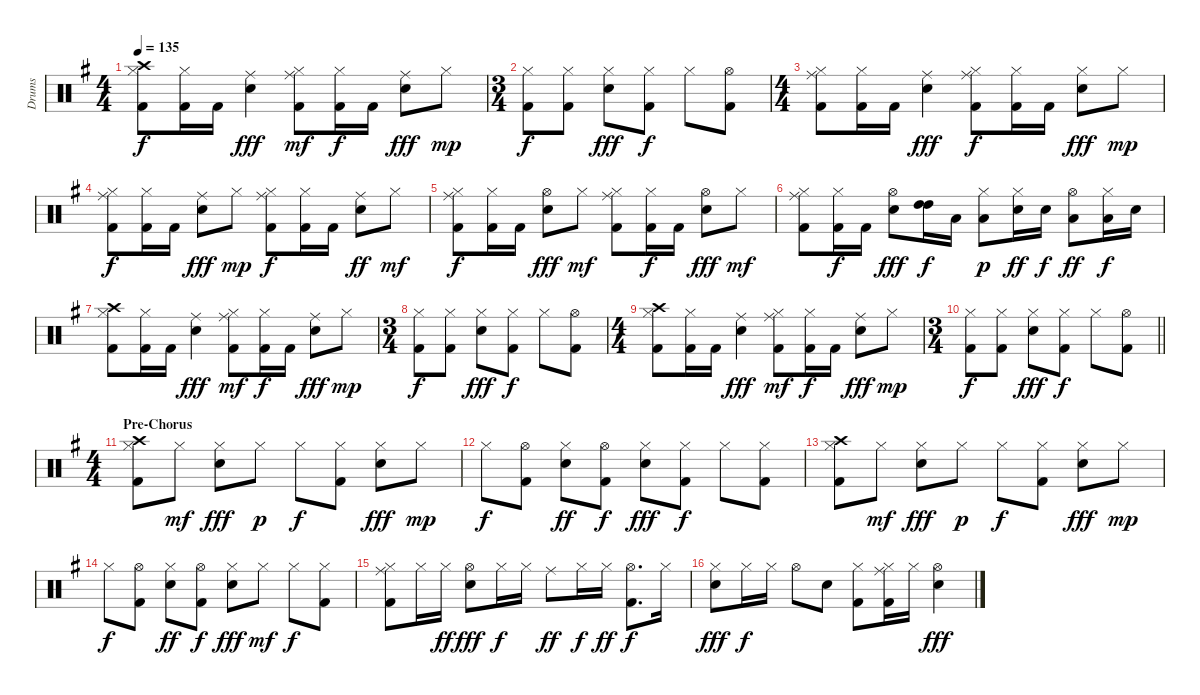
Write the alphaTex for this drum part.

\track ("Drums" "Drums") {instrument percussion}
\staff {score}
\articulation defaults
\ts (4 4)
\tempo 135
\clef neutral
\ks g
("Hi-Hat (closed)" "Crash high (hit)" "Kick (hit) 2").8{dy f} ("Hi-Hat (closed)" "Kick (hit) 2").16 "Kick (hit) 2".16 ("Ride (middle)" "Electric Snare (hit)").4{dy fff} ("Hi-Hat (closed)" "Ride (middle)" "Kick (hit) 2").8{dy mf} ("Hi-Hat (closed)" "Kick (hit) 2").16{dy f} "Kick (hit) 2".16 ("Ride (middle)" "Electric Snare (hit)").8{dy fff} "Hi-Hat (closed)".8{dy mp} |
\ts (3 4)
("Hi-Hat (closed)" "Kick (hit) 2").8{dy f} ("Hi-Hat (closed)" "Kick (hit) 2").8 ("Hi-Hat (closed)" "Electric Snare (hit)").8{dy fff} ("Hi-Hat (closed)" "Kick (hit) 2").8{dy f} "Hi-Hat (closed)".8 ("Hi-Hat (open)" "Kick (hit) 2").8 |
\ts (4 4)
("Hi-Hat (closed)" "Ride (middle)" "Kick (hit) 2").8 ("Hi-Hat (closed)" "Kick (hit) 2").16 "Kick (hit) 2".16 ("Ride (middle)" "Electric Snare (hit)").4{dy fff} ("Hi-Hat (closed)" "Ride (middle)" "Kick (hit) 2").8{dy f} ("Hi-Hat (closed)" "Kick (hit) 2").16 "Kick (hit) 2".16 ("Hi-Hat (closed)" "Electric Snare (hit)").8{dy fff} "Hi-Hat (closed)".8{dy mp} |
("Hi-Hat (closed)" "Ride (middle)" "Kick (hit) 2").8{dy f} ("Hi-Hat (closed)" "Kick (hit) 2").16 "Kick (hit) 2".16 ("Ride (middle)" "Electric Snare (hit)").8{dy fff} "Hi-Hat (closed)".8{dy mp} ("Hi-Hat (closed)" "Ride (middle)" "Kick (hit) 2").8{dy f} ("Hi-Hat (closed)" "Kick (hit) 2").16 "Kick (hit) 2".16 ("Ride (middle)" "Electric Snare (hit)").8{dy ff} "Hi-Hat (closed)".8{dy mf} |
("Hi-Hat (closed)" "Ride (middle)" "Kick (hit) 2").8{dy f} ("Hi-Hat (closed)" "Kick (hit) 2").16 "Kick (hit) 2".16 ("Hi-Hat (open)" "Electric Snare (hit)").8{dy fff} "Hi-Hat (closed)".8{dy mf} ("Hi-Hat (closed)" "Ride (middle)" "Kick (hit) 2").8 ("Hi-Hat (closed)" "Kick (hit) 2").16{dy f} "Kick (hit) 2".16 ("Hi-Hat (open)" "Electric Snare (hit)").8{dy fff} "Hi-Hat (closed)".8{dy mf} |
("Hi-Hat (closed)" "Ride (middle)" "Kick (hit) 2").8 ("Hi-Hat (closed)" "Kick (hit) 2").16{dy f} "Kick (hit) 2".16 ("Hi-Hat (open)" "Electric Snare (hit)").8{dy fff} ("High Tom (hit)" "High Tom (hit)").16{dy f} "Low Tom (hit)".16 ("Hi-Hat (closed)" "Low Floor Tom (hit)").8{dy p} ("Hi-Hat (closed)" "Electric Snare (hit)").16{dy ff} "Electric Snare (hit)".16{dy f} ("Hi-Hat (open)" "Low Tom (hit)").8{dy ff} ("Hi-Hat (closed)" "Low Tom (hit)").16{dy f} "Electric Snare (hit)".16 |
("Hi-Hat (closed)" "Crash high (hit)" "Kick (hit) 2").8 ("Hi-Hat (closed)" "Kick (hit) 2").16 "Kick (hit) 2".16 ("Ride (middle)" "Electric Snare (hit)").4{dy fff} ("Hi-Hat (closed)" "Ride (middle)" "Kick (hit) 2").8{dy mf} ("Hi-Hat (closed)" "Kick (hit) 2").16{dy f} "Kick (hit) 2".16 ("Ride (middle)" "Electric Snare (hit)").8{dy fff} "Hi-Hat (closed)".8{dy mp} |
\ts (3 4)
("Hi-Hat (closed)" "Kick (hit) 2").8{dy f} ("Hi-Hat (closed)" "Kick (hit) 2").8 ("Hi-Hat (closed)" "Electric Snare (hit)").8{dy fff} ("Hi-Hat (closed)" "Kick (hit) 2").8{dy f} "Hi-Hat (closed)".8 ("Hi-Hat (open)" "Kick (hit) 2").8 |
\ts (4 4)
("Hi-Hat (closed)" "Crash high (hit)" "Kick (hit) 2").8 ("Hi-Hat (closed)" "Kick (hit) 2").16 "Kick (hit) 2".16 ("Ride (middle)" "Electric Snare (hit)").4{dy fff} ("Hi-Hat (closed)" "Ride (middle)" "Kick (hit) 2").8{dy mf} ("Hi-Hat (closed)" "Kick (hit) 2").16{dy f} "Kick (hit) 2".16 ("Ride (middle)" "Electric Snare (hit)").8{dy fff} "Hi-Hat (closed)".8{dy mp} |
\ts (3 4)
\barLineRight lightlight
("Hi-Hat (closed)" "Kick (hit) 2").8{dy f} ("Hi-Hat (closed)" "Kick (hit) 2").8 ("Hi-Hat (closed)" "Electric Snare (hit)").8{dy fff} ("Hi-Hat (closed)" "Kick (hit) 2").8{dy f} "Hi-Hat (closed)".8 ("Hi-Hat (open)" "Kick (hit) 2").8 |
\ts (4 4)
\section ("" "Pre-Chorus")
("Hi-Hat (closed)" "Crash high (hit)" "Kick (hit) 2").8 "Hi-Hat (closed)".8{dy mf} ("Hi-Hat (closed)" "Electric Snare (hit)").8{dy fff} "Hi-Hat (closed)".8{dy p} "Hi-Hat (closed)".8{dy f} ("Hi-Hat (closed)" "Kick (hit) 2").8 ("Hi-Hat (closed)" "Electric Snare (hit)").8{dy fff} "Hi-Hat (closed)".8{dy mp} |
"Hi-Hat (closed)".8{dy f} ("Hi-Hat (open)" "Kick (hit) 2").8 ("Hi-Hat (closed)" "Electric Snare (hit)").8{dy ff} ("Hi-Hat (open)" "Kick (hit) 2").8{dy f} ("Hi-Hat (closed)" "Electric Snare (hit)").8{dy fff} ("Hi-Hat (closed)" "Kick (hit) 2").8{dy f} "Hi-Hat (closed)".8 ("Hi-Hat (closed)" "Kick (hit) 2").8 |
("Hi-Hat (closed)" "Crash high (hit)" "Kick (hit) 2").8 "Hi-Hat (closed)".8{dy mf} ("Hi-Hat (closed)" "Electric Snare (hit)").8{dy fff} "Hi-Hat (closed)".8{dy p} "Hi-Hat (closed)".8{dy f} ("Hi-Hat (closed)" "Kick (hit) 2").8 ("Hi-Hat (closed)" "Electric Snare (hit)").8{dy fff} "Hi-Hat (closed)".8{dy mp} |
"Hi-Hat (closed)".8{dy f} ("Hi-Hat (open)" "Kick (hit) 2").8 ("Hi-Hat (closed)" "Electric Snare (hit)").8{dy ff} ("Hi-Hat (open)" "Kick (hit) 2").8{dy f} ("Hi-Hat (closed)" "Electric Snare (hit)").8{dy fff} "Hi-Hat (closed)".8{dy mf} "Hi-Hat (closed)".8{dy f} ("Hi-Hat (closed)" "Kick (hit) 2").8 |
("Hi-Hat (closed)" "Ride (middle)" "Kick (hit) 2").8 "Hi-Hat (closed)".16 "Hi-Hat (closed)".16{dy ff} ("Hi-Hat (open)" "Electric Snare (hit)").8{dy fff} "Hi-Hat (closed)".16{dy f} "Hi-Hat (closed)".16 "Ride (middle)".8{dy ff} "Hi-Hat (closed)".16{dy f} "Hi-Hat (closed)".16{dy ff} ("Hi-Hat (open)" "Kick (hit) 2").8{d dy f} "Hi-Hat (closed)".16 |
("Hi-Hat (closed)" "Electric Snare (hit)").8{dy fff} "Hi-Hat (closed)".16{dy f} "Hi-Hat (closed)".16 "Hi-Hat (open)".8 "Electric Snare (hit)".8 ("Hi-Hat (closed)" "Kick (hit) 2").8 ("Hi-Hat (closed)" "Ride (middle)" "Kick (hit) 2").16 "Hi-Hat (closed)".16 ("Hi-Hat (open)" "Electric Snare (hit)").4{dy fff}
